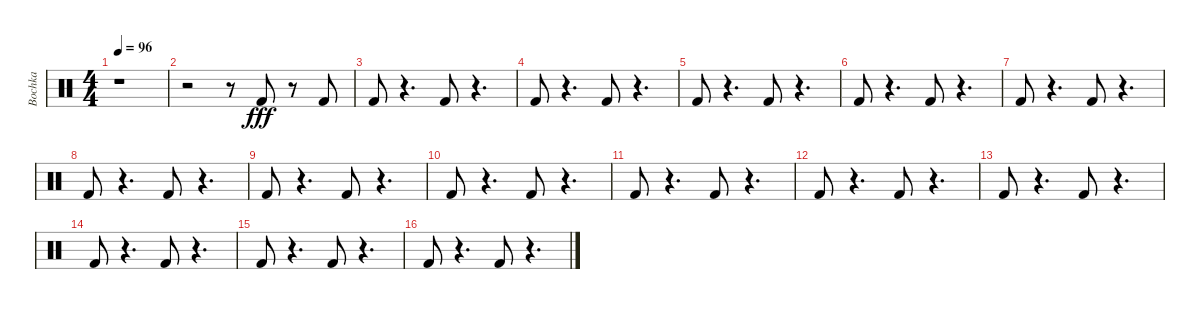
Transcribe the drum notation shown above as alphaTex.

\track ("Bochka" "Bochka") {instrument percussion}
\staff {score}
\articulation defaults
\ts (4 4)
\tempo 96
\clef neutral
\ks c
r.1{dy f} |
r.2 r.8 "Kick (hit) 2".8{dy fff} r.8 "Kick (hit) 2".8 |
"Kick (hit) 2".8 r.4{d} "Kick (hit) 2".8 r.4{d} |
"Kick (hit) 2".8 r.4{d} "Kick (hit) 2".8 r.4{d} |
"Kick (hit) 2".8 r.4{d} "Kick (hit) 2".8 r.4{d} |
"Kick (hit) 2".8 r.4{d} "Kick (hit) 2".8 r.4{d} |
"Kick (hit) 2".8 r.4{d} "Kick (hit) 2".8 r.4{d} |
"Kick (hit) 2".8 r.4{d} "Kick (hit) 2".8 r.4{d} |
"Kick (hit) 2".8 r.4{d} "Kick (hit) 2".8 r.4{d} |
"Kick (hit) 2".8 r.4{d} "Kick (hit) 2".8 r.4{d} |
"Kick (hit) 2".8 r.4{d} "Kick (hit) 2".8 r.4{d} |
"Kick (hit) 2".8 r.4{d} "Kick (hit) 2".8 r.4{d} |
"Kick (hit) 2".8 r.4{d} "Kick (hit) 2".8 r.4{d} |
"Kick (hit) 2".8 r.4{d} "Kick (hit) 2".8 r.4{d} |
"Kick (hit) 2".8 r.4{d} "Kick (hit) 2".8 r.4{d} |
"Kick (hit) 2".8 r.4{d} "Kick (hit) 2".8 r.4{d}
